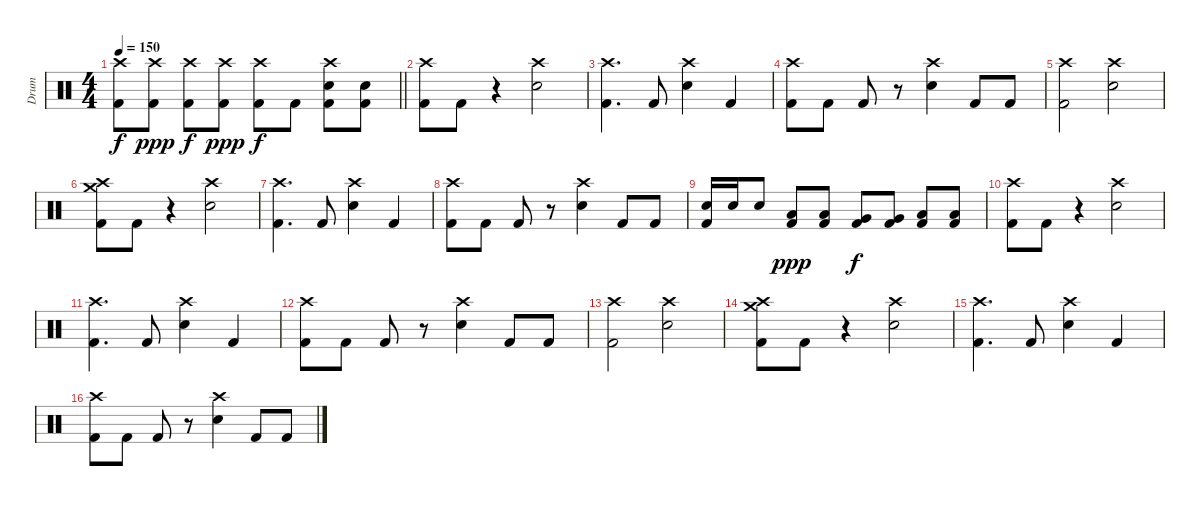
\track ("Drum" "Drum") {instrument percussion}
\staff {score}
\articulation defaults
\ts (4 4)
\tempo 150
\clef neutral
\barLineRight lightlight
\ks c
("Crash high (hit)" "Kick (hit) 2").8{dy f} ("Crash high (hit)" "Kick (hit) 2").8{dy ppp} ("Crash high (hit)" "Kick (hit) 2").8{dy f} ("Crash high (hit)" "Kick (hit) 2").8{dy ppp} ("Crash high (hit)" "Kick (hit) 2").8{dy f} "Kick (hit) 2".8 ("Crash high (hit)" "Electric Snare (hit)" "Kick (hit) 2").8 ("Electric Snare (hit)" "Kick (hit) 2").8 |
("Crash high (hit)" "Kick (hit) 2").8 "Kick (hit) 2".8 r.4 ("Crash high (hit)" "Electric Snare (hit)").2 |
("Crash high (hit)" "Kick (hit) 2").4{d} "Kick (hit) 2".8 ("Crash high (hit)" "Electric Snare (hit)").4 "Kick (hit) 2".4 |
("Crash high (hit)" "Kick (hit) 2").8 "Kick (hit) 2".8 "Kick (hit) 2".8 r.8 ("Crash high (hit)" "Electric Snare (hit)").4 "Kick (hit) 2".8 "Kick (hit) 2".8 |
("Crash high (hit)" "Kick (hit) 2").2 ("Crash high (hit)" "Electric Snare (hit)").2 |
("Crash high (hit)" "Crash medium (hit)" "Kick (hit) 2").8 "Kick (hit) 2".8 r.4 ("Crash high (hit)" "Electric Snare (hit)").2 |
("Crash high (hit)" "Kick (hit) 2").4{d} "Kick (hit) 2".8 ("Crash high (hit)" "Electric Snare (hit)").4 "Kick (hit) 2".4 |
("Crash high (hit)" "Kick (hit) 2").8 "Kick (hit) 2".8 "Kick (hit) 2".8 r.8 ("Crash high (hit)" "Electric Snare (hit)").4 "Kick (hit) 2".8 "Kick (hit) 2".8 |
("Electric Snare (hit)" "Kick (hit) 2").16 "Electric Snare (hit)".16 "Electric Snare (hit)".8 ("Low Tom (hit)" "Kick (hit) 2").8{dy ppp} ("Low Tom (hit)" "Kick (hit) 2").8 ("Very Low Tom (hit)" "Kick (hit) 2").8{dy f} ("Very Low Tom (hit)" "Kick (hit) 2").8 ("Low Floor Tom (hit)" "Kick (hit) 2").8 ("Low Floor Tom (hit)" "Kick (hit) 2").8 |
("Crash high (hit)" "Kick (hit) 2").8 "Kick (hit) 2".8 r.4 ("Crash high (hit)" "Electric Snare (hit)").2 |
("Crash high (hit)" "Kick (hit) 2").4{d} "Kick (hit) 2".8 ("Crash high (hit)" "Electric Snare (hit)").4 "Kick (hit) 2".4 |
("Crash high (hit)" "Kick (hit) 2").8 "Kick (hit) 2".8 "Kick (hit) 2".8 r.8 ("Crash high (hit)" "Electric Snare (hit)").4 "Kick (hit) 2".8 "Kick (hit) 2".8 |
("Crash high (hit)" "Kick (hit) 2").2 ("Crash high (hit)" "Electric Snare (hit)").2 |
("Crash high (hit)" "Crash medium (hit)" "Kick (hit) 2").8 "Kick (hit) 2".8 r.4 ("Crash high (hit)" "Electric Snare (hit)").2 |
("Crash high (hit)" "Kick (hit) 2").4{d} "Kick (hit) 2".8 ("Crash high (hit)" "Electric Snare (hit)").4 "Kick (hit) 2".4 |
("Crash high (hit)" "Kick (hit) 2").8 "Kick (hit) 2".8 "Kick (hit) 2".8 r.8 ("Crash high (hit)" "Electric Snare (hit)").4 "Kick (hit) 2".8 "Kick (hit) 2".8
